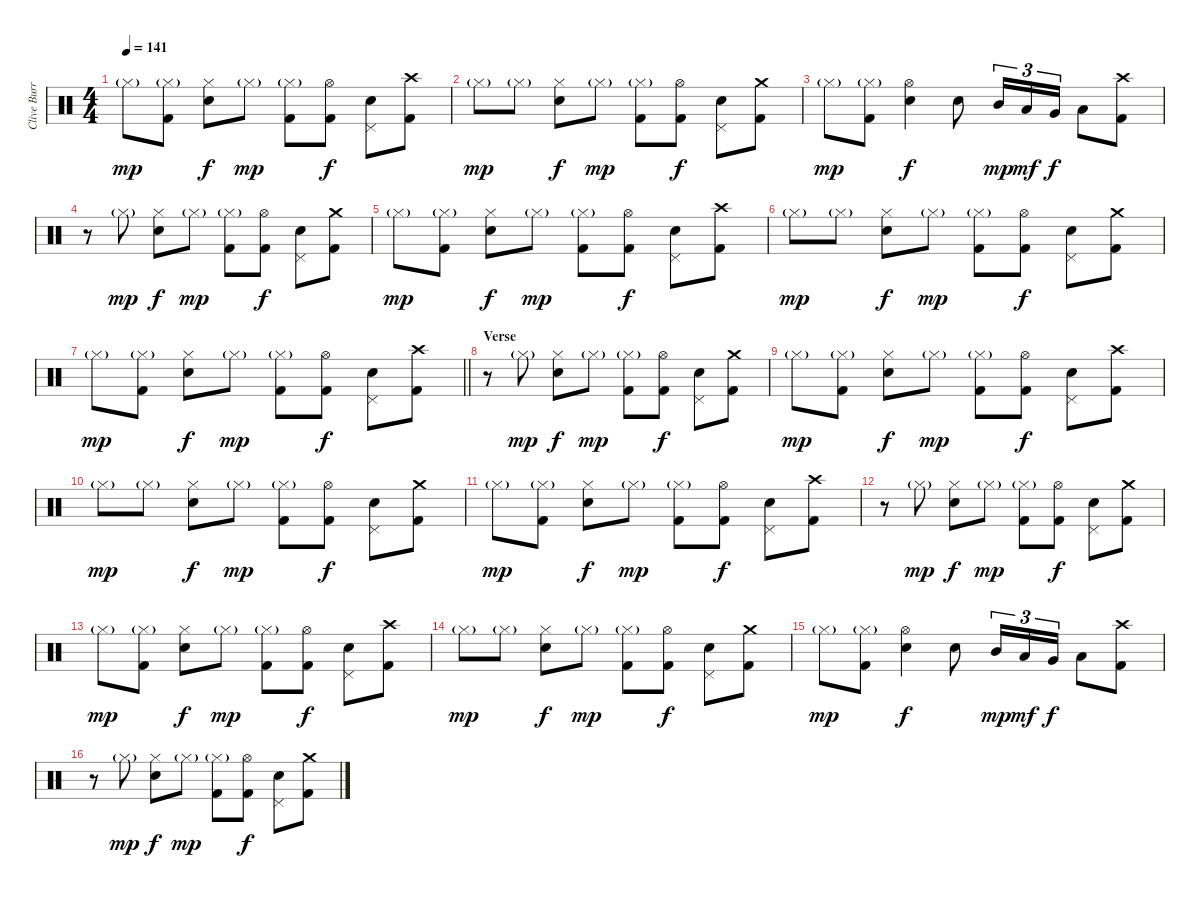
\track ("Clive Burr" "Clive Burr") {instrument percussion}
\staff {score}
\articulation defaults
\ts (4 4)
\tempo 141
\clef neutral
\ks c "Hi-Hat (closed)"{g}.8{dy mp}
("Hi-Hat (closed)"{g} "Kick (hit) 2").8 ("Hi-Hat (closed)" "Snare (hit) 2").8{dy f} "Hi-Hat (closed)"{g}.8{dy mp} ("Hi-Hat (closed)"{g} "Kick (hit) 2").8 ("Hi-Hat (open)" "Kick (hit) 2").8{dy f} ("Pedal Hi-Hat (hit)" "Snare (hit) 2").8 ("Crash high (hit)" "Kick (hit) 2").8 |
"Hi-Hat (closed)"{g}.8{dy mp} "Hi-Hat (closed)"{g}.8 ("Hi-Hat (closed)" "Snare (hit) 2").8{dy f} "Hi-Hat (closed)"{g}.8{dy mp} ("Hi-Hat (closed)"{g} "Kick (hit) 2").8 ("Hi-Hat (open)" "Kick (hit) 2").8{dy f} ("Pedal Hi-Hat (hit)" "Snare (hit) 2").8 ("Crash medium (hit)" "Kick (hit) 2").8 |
"Hi-Hat (closed)"{g}.8{dy mp} ("Hi-Hat (closed)"{g} "Kick (hit) 2").8 ("Hi-Hat (open)" "Snare (hit) 2").4{dy f} "Snare (hit) 2".8 "Mid Tom (hit)".16{tu (3 2) dy mp} "Low Tom (hit)".16{tu (3 2) dy mf} "Very Low Tom (hit)".16{tu (3 2) dy f} "Low Floor Tom (hit)".8 ("Crash high (hit)" "Kick (hit) 2").8 |
r.8 "Hi-Hat (closed)"{g}.8{dy mp} ("Hi-Hat (closed)" "Snare (hit) 2").8{dy f} "Hi-Hat (closed)"{g}.8{dy mp} ("Hi-Hat (closed)"{g} "Kick (hit) 2").8 ("Hi-Hat (open)" "Kick (hit) 2").8{dy f} ("Pedal Hi-Hat (hit)" "Snare (hit) 2").8 ("Crash medium (hit)" "Kick (hit) 2").8 |
"Hi-Hat (closed)"{g}.8{dy mp} ("Hi-Hat (closed)"{g} "Kick (hit) 2").8 ("Hi-Hat (closed)" "Snare (hit) 2").8{dy f} "Hi-Hat (closed)"{g}.8{dy mp} ("Hi-Hat (closed)"{g} "Kick (hit) 2").8 ("Hi-Hat (open)" "Kick (hit) 2").8{dy f} ("Pedal Hi-Hat (hit)" "Snare (hit) 2").8 ("Crash high (hit)" "Kick (hit) 2").8 |
"Hi-Hat (closed)"{g}.8{dy mp} "Hi-Hat (closed)"{g}.8 ("Hi-Hat (closed)" "Snare (hit) 2").8{dy f} "Hi-Hat (closed)"{g}.8{dy mp} ("Hi-Hat (closed)"{g} "Kick (hit) 2").8 ("Hi-Hat (open)" "Kick (hit) 2").8{dy f} ("Pedal Hi-Hat (hit)" "Snare (hit) 2").8 ("Crash medium (hit)" "Kick (hit) 2").8 |
\barLineRight lightlight "Hi-Hat (closed)"{g}.8{dy mp}
("Hi-Hat (closed)"{g} "Kick (hit) 2").8 ("Hi-Hat (closed)" "Snare (hit) 2").8{dy f} "Hi-Hat (closed)"{g}.8{dy mp} ("Hi-Hat (closed)"{g} "Kick (hit) 2").8 ("Hi-Hat (open)" "Kick (hit) 2").8{dy f} ("Pedal Hi-Hat (hit)" "Snare (hit) 2").8 ("Crash high (hit)" "Kick (hit) 2").8 |
\section ("" "Verse")
r.8 "Hi-Hat (closed)"{g}.8{dy mp} ("Hi-Hat (closed)" "Snare (hit) 2").8{dy f} "Hi-Hat (closed)"{g}.8{dy mp} ("Hi-Hat (closed)"{g} "Kick (hit) 2").8 ("Hi-Hat (open)" "Kick (hit) 2").8{dy f} ("Pedal Hi-Hat (hit)" "Snare (hit) 2").8 ("Crash medium (hit)" "Kick (hit) 2").8 |
"Hi-Hat (closed)"{g}.8{dy mp} ("Hi-Hat (closed)"{g} "Kick (hit) 2").8 ("Hi-Hat (closed)" "Snare (hit) 2").8{dy f} "Hi-Hat (closed)"{g}.8{dy mp} ("Hi-Hat (closed)"{g} "Kick (hit) 2").8 ("Hi-Hat (open)" "Kick (hit) 2").8{dy f} ("Pedal Hi-Hat (hit)" "Snare (hit) 2").8 ("Crash high (hit)" "Kick (hit) 2").8 |
"Hi-Hat (closed)"{g}.8{dy mp} "Hi-Hat (closed)"{g}.8 ("Hi-Hat (closed)" "Snare (hit) 2").8{dy f} "Hi-Hat (closed)"{g}.8{dy mp} ("Hi-Hat (closed)"{g} "Kick (hit) 2").8 ("Hi-Hat (open)" "Kick (hit) 2").8{dy f} ("Pedal Hi-Hat (hit)" "Snare (hit) 2").8 ("Crash medium (hit)" "Kick (hit) 2").8 |
"Hi-Hat (closed)"{g}.8{dy mp} ("Hi-Hat (closed)"{g} "Kick (hit) 2").8 ("Hi-Hat (closed)" "Snare (hit) 2").8{dy f} "Hi-Hat (closed)"{g}.8{dy mp} ("Hi-Hat (closed)"{g} "Kick (hit) 2").8 ("Hi-Hat (open)" "Kick (hit) 2").8{dy f} ("Pedal Hi-Hat (hit)" "Snare (hit) 2").8 ("Crash high (hit)" "Kick (hit) 2").8 |
r.8 "Hi-Hat (closed)"{g}.8{dy mp} ("Hi-Hat (closed)" "Snare (hit) 2").8{dy f} "Hi-Hat (closed)"{g}.8{dy mp} ("Hi-Hat (closed)"{g} "Kick (hit) 2").8 ("Hi-Hat (open)" "Kick (hit) 2").8{dy f} ("Pedal Hi-Hat (hit)" "Snare (hit) 2").8 ("Crash medium (hit)" "Kick (hit) 2").8 |
"Hi-Hat (closed)"{g}.8{dy mp} ("Hi-Hat (closed)"{g} "Kick (hit) 2").8 ("Hi-Hat (closed)" "Snare (hit) 2").8{dy f} "Hi-Hat (closed)"{g}.8{dy mp} ("Hi-Hat (closed)"{g} "Kick (hit) 2").8 ("Hi-Hat (open)" "Kick (hit) 2").8{dy f} ("Pedal Hi-Hat (hit)" "Snare (hit) 2").8 ("Crash high (hit)" "Kick (hit) 2").8 |
"Hi-Hat (closed)"{g}.8{dy mp} "Hi-Hat (closed)"{g}.8 ("Hi-Hat (closed)" "Snare (hit) 2").8{dy f} "Hi-Hat (closed)"{g}.8{dy mp} ("Hi-Hat (closed)"{g} "Kick (hit) 2").8 ("Hi-Hat (open)" "Kick (hit) 2").8{dy f} ("Pedal Hi-Hat (hit)" "Snare (hit) 2").8 ("Crash medium (hit)" "Kick (hit) 2").8 |
"Hi-Hat (closed)"{g}.8{dy mp} ("Hi-Hat (closed)"{g} "Kick (hit) 2").8 ("Hi-Hat (open)" "Snare (hit) 2").4{dy f} "Snare (hit) 2".8 "Mid Tom (hit)".16{tu (3 2) dy mp} "Low Tom (hit)".16{tu (3 2) dy mf} "Very Low Tom (hit)".16{tu (3 2) dy f} "Low Floor Tom (hit)".8 ("Crash high (hit)" "Kick (hit) 2").8 |
r.8 "Hi-Hat (closed)"{g}.8{dy mp} ("Hi-Hat (closed)" "Snare (hit) 2").8{dy f} "Hi-Hat (closed)"{g}.8{dy mp} ("Hi-Hat (closed)"{g} "Kick (hit) 2").8 ("Hi-Hat (open)" "Kick (hit) 2").8{dy f} ("Pedal Hi-Hat (hit)" "Snare (hit) 2").8 ("Crash medium (hit)" "Kick (hit) 2").8
